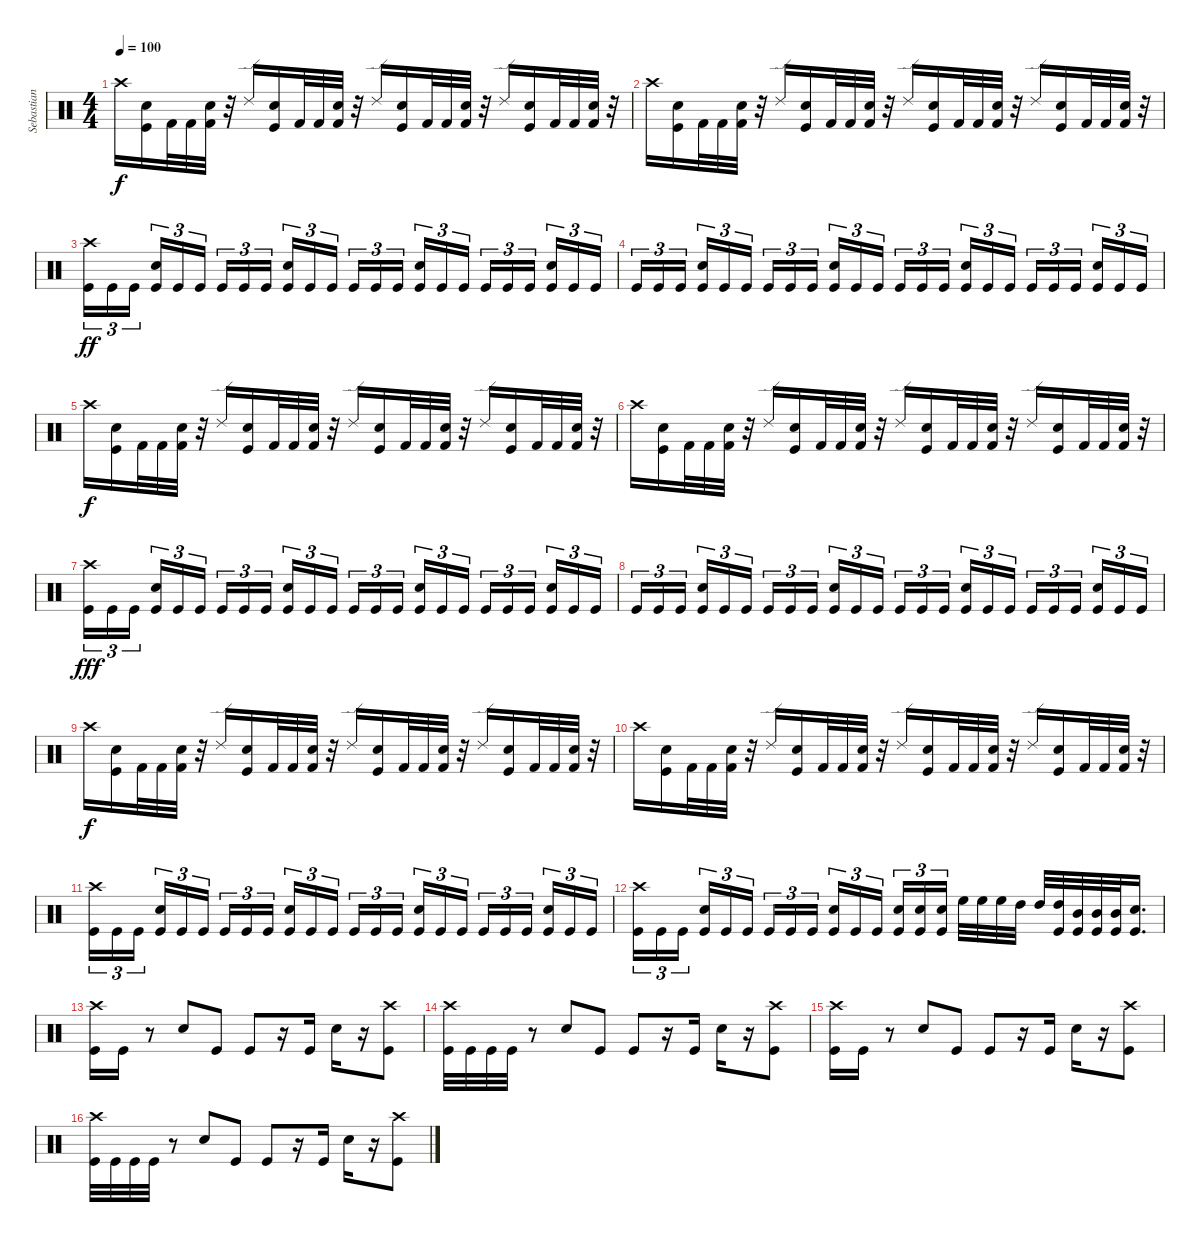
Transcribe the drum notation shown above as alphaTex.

\track ("Sebastian Heldt" "Sebastian ") {instrument percussion}
\staff {score}
\articulation defaults
\ts (4 4)
\tempo 100
\clef neutral
\ks c "Crash high (hit)".16{dy f}
("Kick (hit)" "Snare (hit) 2").16 "Kick (hit) 2".32 "Kick (hit) 2".32 ("Kick (hit) 2" "Snare (hit) 2").32 r.32 "Ride (edge) 2".16 ("Kick (hit)" "Snare (hit) 2").16 "Kick (hit) 2".32 "Kick (hit) 2".32 ("Kick (hit) 2" "Snare (hit) 2").32 r.32 "Ride (edge) 2".16 ("Kick (hit)" "Snare (hit) 2").16 "Kick (hit) 2".32 "Kick (hit) 2".32 ("Kick (hit) 2" "Snare (hit) 2").32 r.32 "Ride (edge) 2".16 ("Kick (hit)" "Snare (hit) 2").16 "Kick (hit) 2".32 "Kick (hit) 2".32 ("Kick (hit) 2" "Snare (hit) 2").32 r.32 |
"Crash high (hit)".16 ("Kick (hit)" "Snare (hit) 2").16 "Kick (hit) 2".32 "Kick (hit) 2".32 ("Kick (hit) 2" "Snare (hit) 2").32 r.32 "Ride (edge) 2".16 ("Kick (hit)" "Snare (hit) 2").16 "Kick (hit) 2".32 "Kick (hit) 2".32 ("Kick (hit) 2" "Snare (hit) 2").32 r.32 "Ride (edge) 2".16 ("Kick (hit)" "Snare (hit) 2").16 "Kick (hit) 2".32 "Kick (hit) 2".32 ("Kick (hit) 2" "Snare (hit) 2").32 r.32 "Ride (edge) 2".16 ("Kick (hit)" "Snare (hit) 2").16 "Kick (hit) 2".32 "Kick (hit) 2".32 ("Kick (hit) 2" "Snare (hit) 2").32 r.32 |
("Kick (hit)" "Crash high (hit)").16{tu (3 2) dy ff} "Kick (hit)".16{tu (3 2)} "Kick (hit)".16{tu (3 2) beam splitsecondary} ("Kick (hit)" "Snare (hit) 2").16{tu (3 2)} "Kick (hit)".16{tu (3 2)} "Kick (hit)".16{tu (3 2)} "Kick (hit)".16{tu (3 2)} "Kick (hit)".16{tu (3 2)} "Kick (hit)".16{tu (3 2) beam splitsecondary} ("Kick (hit)" "Snare (hit) 2").16{tu (3 2)} "Kick (hit)".16{tu (3 2)} "Kick (hit)".16{tu (3 2)} "Kick (hit)".16{tu (3 2)} "Kick (hit)".16{tu (3 2)} "Kick (hit)".16{tu (3 2) beam splitsecondary} ("Kick (hit)" "Snare (hit) 2").16{tu (3 2)} "Kick (hit)".16{tu (3 2)} "Kick (hit)".16{tu (3 2)} "Kick (hit)".16{tu (3 2)} "Kick (hit)".16{tu (3 2)} "Kick (hit)".16{tu (3 2) beam splitsecondary} ("Kick (hit)" "Snare (hit) 2").16{tu (3 2)} "Kick (hit)".16{tu (3 2)} "Kick (hit)".16{tu (3 2)} |
"Kick (hit)".16{tu (3 2)} "Kick (hit)".16{tu (3 2)} "Kick (hit)".16{tu (3 2) beam splitsecondary} ("Kick (hit)" "Snare (hit) 2").16{tu (3 2)} "Kick (hit)".16{tu (3 2)} "Kick (hit)".16{tu (3 2)} "Kick (hit)".16{tu (3 2)} "Kick (hit)".16{tu (3 2)} "Kick (hit)".16{tu (3 2) beam splitsecondary} ("Kick (hit)" "Snare (hit) 2").16{tu (3 2)} "Kick (hit)".16{tu (3 2)} "Kick (hit)".16{tu (3 2)} "Kick (hit)".16{tu (3 2)} "Kick (hit)".16{tu (3 2)} "Kick (hit)".16{tu (3 2) beam splitsecondary} ("Kick (hit)" "Snare (hit) 2").16{tu (3 2)} "Kick (hit)".16{tu (3 2)} "Kick (hit)".16{tu (3 2)} "Kick (hit)".16{tu (3 2)} "Kick (hit)".16{tu (3 2)} "Kick (hit)".16{tu (3 2) beam splitsecondary} ("Kick (hit)" "Snare (hit) 2").16{tu (3 2)} "Kick (hit)".16{tu (3 2)} "Kick (hit)".16{tu (3 2)} |
"Crash high (hit)".16{dy f} ("Kick (hit)" "Snare (hit) 2").16 "Kick (hit) 2".32 "Kick (hit) 2".32 ("Kick (hit) 2" "Snare (hit) 2").32 r.32 "Ride (edge) 2".16 ("Kick (hit)" "Snare (hit) 2").16 "Kick (hit) 2".32 "Kick (hit) 2".32 ("Kick (hit) 2" "Snare (hit) 2").32 r.32 "Ride (edge) 2".16 ("Kick (hit)" "Snare (hit) 2").16 "Kick (hit) 2".32 "Kick (hit) 2".32 ("Kick (hit) 2" "Snare (hit) 2").32 r.32 "Ride (edge) 2".16 ("Kick (hit)" "Snare (hit) 2").16 "Kick (hit) 2".32 "Kick (hit) 2".32 ("Kick (hit) 2" "Snare (hit) 2").32 r.32 |
"Crash high (hit)".16 ("Kick (hit)" "Snare (hit) 2").16 "Kick (hit) 2".32 "Kick (hit) 2".32 ("Kick (hit) 2" "Snare (hit) 2").32 r.32 "Ride (edge) 2".16 ("Kick (hit)" "Snare (hit) 2").16 "Kick (hit) 2".32 "Kick (hit) 2".32 ("Kick (hit) 2" "Snare (hit) 2").32 r.32 "Ride (edge) 2".16 ("Kick (hit)" "Snare (hit) 2").16 "Kick (hit) 2".32 "Kick (hit) 2".32 ("Kick (hit) 2" "Snare (hit) 2").32 r.32 "Ride (edge) 2".16 ("Kick (hit)" "Snare (hit) 2").16 "Kick (hit) 2".32 "Kick (hit) 2".32 ("Kick (hit) 2" "Snare (hit) 2").32 r.32 |
("Kick (hit)" "Crash high (hit)").16{tu (3 2) dy fff} "Kick (hit)".16{tu (3 2)} "Kick (hit)".16{tu (3 2) beam splitsecondary} ("Kick (hit)" "Snare (hit) 2").16{tu (3 2)} "Kick (hit)".16{tu (3 2)} "Kick (hit)".16{tu (3 2)} "Kick (hit)".16{tu (3 2)} "Kick (hit)".16{tu (3 2)} "Kick (hit)".16{tu (3 2) beam splitsecondary} ("Kick (hit)" "Snare (hit) 2").16{tu (3 2)} "Kick (hit)".16{tu (3 2)} "Kick (hit)".16{tu (3 2)} "Kick (hit)".16{tu (3 2)} "Kick (hit)".16{tu (3 2)} "Kick (hit)".16{tu (3 2) beam splitsecondary} ("Kick (hit)" "Snare (hit) 2").16{tu (3 2)} "Kick (hit)".16{tu (3 2)} "Kick (hit)".16{tu (3 2)} "Kick (hit)".16{tu (3 2)} "Kick (hit)".16{tu (3 2)} "Kick (hit)".16{tu (3 2) beam splitsecondary} ("Kick (hit)" "Snare (hit) 2").16{tu (3 2)} "Kick (hit)".16{tu (3 2)} "Kick (hit)".16{tu (3 2)} |
"Kick (hit)".16{tu (3 2)} "Kick (hit)".16{tu (3 2)} "Kick (hit)".16{tu (3 2) beam splitsecondary} ("Kick (hit)" "Snare (hit) 2").16{tu (3 2)} "Kick (hit)".16{tu (3 2)} "Kick (hit)".16{tu (3 2)} "Kick (hit)".16{tu (3 2)} "Kick (hit)".16{tu (3 2)} "Kick (hit)".16{tu (3 2) beam splitsecondary} ("Kick (hit)" "Snare (hit) 2").16{tu (3 2)} "Kick (hit)".16{tu (3 2)} "Kick (hit)".16{tu (3 2)} "Kick (hit)".16{tu (3 2)} "Kick (hit)".16{tu (3 2)} "Kick (hit)".16{tu (3 2) beam splitsecondary} ("Kick (hit)" "Snare (hit) 2").16{tu (3 2)} "Kick (hit)".16{tu (3 2)} "Kick (hit)".16{tu (3 2)} "Kick (hit)".16{tu (3 2)} "Kick (hit)".16{tu (3 2)} "Kick (hit)".16{tu (3 2) beam splitsecondary} ("Kick (hit)" "Snare (hit) 2").16{tu (3 2)} "Kick (hit)".16{tu (3 2)} "Kick (hit)".16{tu (3 2)} |
"Crash high (hit)".16{dy f} ("Kick (hit)" "Snare (hit) 2").16 "Kick (hit) 2".32 "Kick (hit) 2".32 ("Kick (hit) 2" "Snare (hit) 2").32 r.32 "Ride (edge) 2".16 ("Kick (hit)" "Snare (hit) 2").16 "Kick (hit) 2".32 "Kick (hit) 2".32 ("Kick (hit) 2" "Snare (hit) 2").32 r.32 "Ride (edge) 2".16 ("Kick (hit)" "Snare (hit) 2").16 "Kick (hit) 2".32 "Kick (hit) 2".32 ("Kick (hit) 2" "Snare (hit) 2").32 r.32 "Ride (edge) 2".16 ("Kick (hit)" "Snare (hit) 2").16 "Kick (hit) 2".32 "Kick (hit) 2".32 ("Kick (hit) 2" "Snare (hit) 2").32 r.32 |
"Crash high (hit)".16 ("Kick (hit)" "Snare (hit) 2").16 "Kick (hit) 2".32 "Kick (hit) 2".32 ("Kick (hit) 2" "Snare (hit) 2").32 r.32 "Ride (edge) 2".16 ("Kick (hit)" "Snare (hit) 2").16 "Kick (hit) 2".32 "Kick (hit) 2".32 ("Kick (hit) 2" "Snare (hit) 2").32 r.32 "Ride (edge) 2".16 ("Kick (hit)" "Snare (hit) 2").16 "Kick (hit) 2".32 "Kick (hit) 2".32 ("Kick (hit) 2" "Snare (hit) 2").32 r.32 "Ride (edge) 2".16 ("Kick (hit)" "Snare (hit) 2").16 "Kick (hit) 2".32 "Kick (hit) 2".32 ("Kick (hit) 2" "Snare (hit) 2").32 r.32 |
("Kick (hit)" "Crash high (hit)").16{tu (3 2)} "Kick (hit)".16{tu (3 2)} "Kick (hit)".16{tu (3 2) beam splitsecondary} ("Kick (hit)" "Snare (hit) 2").16{tu (3 2)} "Kick (hit)".16{tu (3 2)} "Kick (hit)".16{tu (3 2)} "Kick (hit)".16{tu (3 2)} "Kick (hit)".16{tu (3 2)} "Kick (hit)".16{tu (3 2) beam splitsecondary} ("Kick (hit)" "Snare (hit) 2").16{tu (3 2)} "Kick (hit)".16{tu (3 2)} "Kick (hit)".16{tu (3 2)} "Kick (hit)".16{tu (3 2)} "Kick (hit)".16{tu (3 2)} "Kick (hit)".16{tu (3 2) beam splitsecondary} ("Kick (hit)" "Snare (hit) 2").16{tu (3 2)} "Kick (hit)".16{tu (3 2)} "Kick (hit)".16{tu (3 2)} "Kick (hit)".16{tu (3 2)} "Kick (hit)".16{tu (3 2)} "Kick (hit)".16{tu (3 2) beam splitsecondary} ("Kick (hit)" "Snare (hit) 2").16{tu (3 2)} "Kick (hit)".16{tu (3 2)} "Kick (hit)".16{tu (3 2)} |
("Kick (hit)" "Crash high (hit)").16{tu (3 2)} "Kick (hit)".16{tu (3 2)} "Kick (hit)".16{tu (3 2) beam splitsecondary} ("Kick (hit)" "Snare (hit) 2").16{tu (3 2)} "Kick (hit)".16{tu (3 2)} "Kick (hit)".16{tu (3 2)} "Kick (hit)".16{tu (3 2)} "Kick (hit)".16{tu (3 2)} "Kick (hit)".16{tu (3 2) beam splitsecondary} ("Kick (hit)" "Snare (hit) 2").16{tu (3 2)} "Kick (hit)".16{tu (3 2)} "Kick (hit)".16{tu (3 2)} ("Kick (hit)" "Snare (hit) 2").16{tu (3 2)} ("Kick (hit)" "Snare (hit) 2").16{tu (3 2)} ("Kick (hit)" "Snare (hit) 2").16{tu (3 2) beam splitsecondary} "High Floor Tom (hit)".32 "High Floor Tom (hit)".32 "High Floor Tom (hit)".32 "High Tom (hit)".32 "High Tom (hit)".32 ("High Tom (hit)" "Kick (hit)").32 ("Mid Tom (hit)" "Kick (hit)").32 ("Mid Tom (hit)" "Kick (hit)").32 ("Mid Tom (hit)" "Kick (hit)").32 ("Snare (hit) 2" "Kick (hit)").16{d} |
("Kick (hit)" "Crash high (hit)").16 "Kick (hit)".16 r.8 "Snare (hit) 2".8 "Kick (hit)".8 "Kick (hit)".8 r.16 "Kick (hit)".16 "Snare (hit) 2".16 r.16 ("Kick (hit)" "Crash high (hit)").8 |
("Kick (hit)" "Crash high (hit)").32 "Kick (hit)".32 "Kick (hit)".32 "Kick (hit)".32 r.8 "Snare (hit) 2".8 "Kick (hit)".8 "Kick (hit)".8 r.16 "Kick (hit)".16 "Snare (hit) 2".16 r.16 ("Kick (hit)" "Crash high (hit)").8 |
("Kick (hit)" "Crash high (hit)").16 "Kick (hit)".16 r.8 "Snare (hit) 2".8 "Kick (hit)".8 "Kick (hit)".8 r.16 "Kick (hit)".16 "Snare (hit) 2".16 r.16 ("Kick (hit)" "Crash high (hit)").8 |
("Kick (hit)" "Crash high (hit)").32 "Kick (hit)".32 "Kick (hit)".32 "Kick (hit)".32 r.8 "Snare (hit) 2".8 "Kick (hit)".8 "Kick (hit)".8 r.16 "Kick (hit)".16 "Snare (hit) 2".16 r.16 ("Kick (hit)" "Crash high (hit)").8
